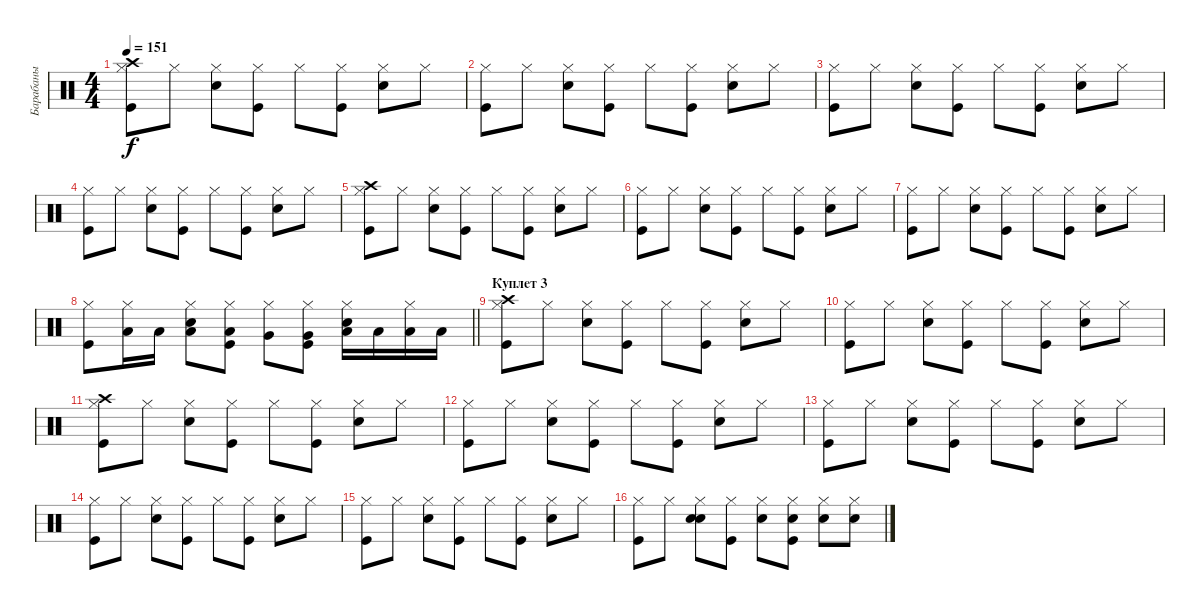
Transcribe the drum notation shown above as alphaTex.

\track ("Барабаны" "Барабаны") {instrument percussion}
\staff {score}
\articulation defaults
\ts (4 4)
\tempo 151
\clef neutral
\ks c
("Kick (hit)" "Hi-Hat (closed)" "Crash high (hit)").8{dy f} "Hi-Hat (closed)".8 ("Snare (hit) 2" "Hi-Hat (closed)").8 ("Kick (hit)" "Hi-Hat (closed)").8 "Hi-Hat (closed)".8 ("Kick (hit)" "Hi-Hat (closed)").8 ("Snare (hit) 2" "Hi-Hat (closed)").8 "Hi-Hat (closed)".8 |
("Kick (hit)" "Hi-Hat (closed)").8 "Hi-Hat (closed)".8 ("Snare (hit) 2" "Hi-Hat (closed)").8 ("Kick (hit)" "Hi-Hat (closed)").8 "Hi-Hat (closed)".8 ("Kick (hit)" "Hi-Hat (closed)").8 ("Snare (hit) 2" "Hi-Hat (closed)").8 "Hi-Hat (closed)".8 |
("Kick (hit)" "Hi-Hat (closed)").8 "Hi-Hat (closed)".8 ("Snare (hit) 2" "Hi-Hat (closed)").8 ("Kick (hit)" "Hi-Hat (closed)").8 "Hi-Hat (closed)".8 ("Kick (hit)" "Hi-Hat (closed)").8 ("Snare (hit) 2" "Hi-Hat (closed)").8 "Hi-Hat (closed)".8 |
("Kick (hit)" "Hi-Hat (closed)").8 "Hi-Hat (closed)".8 ("Snare (hit) 2" "Hi-Hat (closed)").8 ("Kick (hit)" "Hi-Hat (closed)").8 "Hi-Hat (closed)".8 ("Kick (hit)" "Hi-Hat (closed)").8 ("Snare (hit) 2" "Hi-Hat (closed)").8 "Hi-Hat (closed)".8 |
("Kick (hit)" "Hi-Hat (closed)" "Crash high (hit)").8 "Hi-Hat (closed)".8 ("Snare (hit) 2" "Hi-Hat (closed)").8 ("Kick (hit)" "Hi-Hat (closed)").8 "Hi-Hat (closed)".8 ("Kick (hit)" "Hi-Hat (closed)").8 ("Snare (hit) 2" "Hi-Hat (closed)").8 "Hi-Hat (closed)".8 |
("Kick (hit)" "Hi-Hat (closed)").8 "Hi-Hat (closed)".8 ("Snare (hit) 2" "Hi-Hat (closed)").8 ("Kick (hit)" "Hi-Hat (closed)").8 "Hi-Hat (closed)".8 ("Kick (hit)" "Hi-Hat (closed)").8 ("Snare (hit) 2" "Hi-Hat (closed)").8 "Hi-Hat (closed)".8 |
("Kick (hit)" "Hi-Hat (closed)").8 "Hi-Hat (closed)".8 ("Snare (hit) 2" "Hi-Hat (closed)").8 ("Kick (hit)" "Hi-Hat (closed)").8 "Hi-Hat (closed)".8 ("Kick (hit)" "Hi-Hat (closed)").8 ("Snare (hit) 2" "Hi-Hat (closed)").8 "Hi-Hat (closed)".8 |
\barLineRight lightlight
("Kick (hit)" "Hi-Hat (closed)").8 ("Hi-Hat (closed)" "Low Tom (hit)").16 "Low Tom (hit)".16 ("Snare (hit) 2" "Hi-Hat (closed)" "Low Tom (hit)").8 ("Kick (hit)" "Hi-Hat (closed)" "Low Tom (hit)").8 ("Hi-Hat (closed)" "Very Low Tom (hit)").8 ("Kick (hit)" "Hi-Hat (closed)" "Very Low Tom (hit)").8 ("Snare (hit) 2" "Hi-Hat (closed)" "Low Tom (hit)").16 "Low Tom (hit)".16 ("Hi-Hat (closed)" "Low Tom (hit)").16 "Low Tom (hit)".16 |
\section ("" "Куплет 3")
("Kick (hit)" "Hi-Hat (closed)" "Crash high (hit)").8 "Hi-Hat (closed)".8 ("Snare (hit) 2" "Hi-Hat (closed)").8 ("Kick (hit)" "Hi-Hat (closed)").8 "Hi-Hat (closed)".8 ("Kick (hit)" "Hi-Hat (closed)").8 ("Snare (hit) 2" "Hi-Hat (closed)").8 "Hi-Hat (closed)".8 |
("Kick (hit)" "Hi-Hat (closed)").8 "Hi-Hat (closed)".8 ("Snare (hit) 2" "Hi-Hat (closed)").8 ("Kick (hit)" "Hi-Hat (closed)").8 "Hi-Hat (closed)".8 ("Kick (hit)" "Hi-Hat (closed)").8 ("Snare (hit) 2" "Hi-Hat (closed)").8 "Hi-Hat (closed)".8 |
("Kick (hit)" "Hi-Hat (closed)" "Crash high (hit)").8 "Hi-Hat (closed)".8 ("Snare (hit) 2" "Hi-Hat (closed)").8 ("Kick (hit)" "Hi-Hat (closed)").8 "Hi-Hat (closed)".8 ("Kick (hit)" "Hi-Hat (closed)").8 ("Snare (hit) 2" "Hi-Hat (closed)").8 "Hi-Hat (closed)".8 |
("Kick (hit)" "Hi-Hat (closed)").8 "Hi-Hat (closed)".8 ("Snare (hit) 2" "Hi-Hat (closed)").8 ("Kick (hit)" "Hi-Hat (closed)").8 "Hi-Hat (closed)".8 ("Kick (hit)" "Hi-Hat (closed)").8 ("Snare (hit) 2" "Hi-Hat (closed)").8 "Hi-Hat (closed)".8 |
("Kick (hit)" "Hi-Hat (closed)").8 "Hi-Hat (closed)".8 ("Snare (hit) 2" "Hi-Hat (closed)").8 ("Kick (hit)" "Hi-Hat (closed)").8 "Hi-Hat (closed)".8 ("Kick (hit)" "Hi-Hat (closed)").8 ("Snare (hit) 2" "Hi-Hat (closed)").8 "Hi-Hat (closed)".8 |
("Kick (hit)" "Hi-Hat (closed)").8 "Hi-Hat (closed)".8 ("Snare (hit) 2" "Hi-Hat (closed)").8 ("Kick (hit)" "Hi-Hat (closed)").8 "Hi-Hat (closed)".8 ("Kick (hit)" "Hi-Hat (closed)").8 ("Snare (hit) 2" "Hi-Hat (closed)").8 "Hi-Hat (closed)".8 |
("Kick (hit)" "Hi-Hat (closed)").8 "Hi-Hat (closed)".8 ("Snare (hit) 2" "Hi-Hat (closed)").8 ("Kick (hit)" "Hi-Hat (closed)").8 "Hi-Hat (closed)".8 ("Kick (hit)" "Hi-Hat (closed)").8 ("Snare (hit) 2" "Hi-Hat (closed)").8 "Hi-Hat (closed)".8 |
("Kick (hit)" "Hi-Hat (closed)").8 "Hi-Hat (closed)".8 ("Snare (hit) 2" "Hi-Hat (closed)" "Hand Clap (hit)").8 ("Kick (hit)" "Hi-Hat (closed)").8 ("Hi-Hat (closed)" "Hand Clap (hit)").8 ("Kick (hit)" "Hi-Hat (closed)" "Hand Clap (hit)").8 ("Snare (hit) 2" "Hi-Hat (closed)").8 ("Hi-Hat (closed)" "Hand Clap (hit)").8
